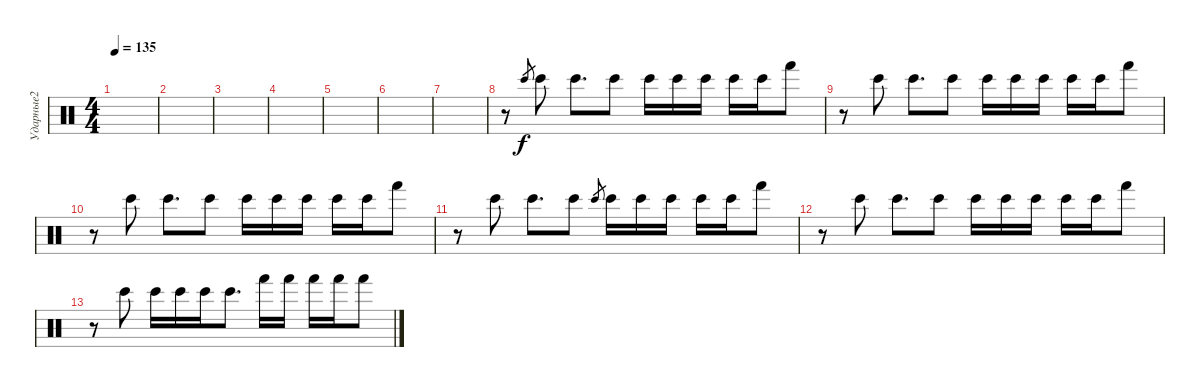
\track ("Ударные2" "Ударные2") {instrument percussion}
\staff {score}
\articulation defaults
\ts (4 4)
\tempo 135
\clef neutral
\ks c
|
|
|
|
|
|
|
r.8 "Bongo High (hit)".8{gr} "Bongo High (hit)".8 "Bongo High (hit)".8{d} "Bongo High (hit)".8 "Bongo High (hit)".16 "Bongo High (hit)".16 "Bongo High (hit)".16 "Bongo High (hit)".16 "Bongo High (hit)".16 "Hand (hit)".8 |
r.8 "Bongo High (hit)".8 "Bongo High (hit)".8{d} "Bongo High (hit)".8 "Bongo High (hit)".16 "Bongo High (hit)".16 "Bongo High (hit)".16 "Bongo High (hit)".16 "Bongo High (hit)".16 "Hand (hit)".8 |
r.8 "Bongo High (hit)".8 "Bongo High (hit)".8{d} "Bongo High (hit)".8 "Bongo High (hit)".16 "Bongo High (hit)".16 "Bongo High (hit)".16 "Bongo High (hit)".16 "Bongo High (hit)".16 "Hand (hit)".8 |
r.8 "Bongo High (hit)".8 "Bongo High (hit)".8{d} "Bongo High (hit)".8 "Bongo High (hit)".8{gr} "Bongo High (hit)".16 "Bongo High (hit)".16 "Bongo High (hit)".16 "Bongo High (hit)".16 "Bongo High (hit)".16 "Hand (hit)".8 |
r.8 "Bongo High (hit)".8 "Bongo High (hit)".8{d} "Bongo High (hit)".8 "Bongo High (hit)".16 "Bongo High (hit)".16 "Bongo High (hit)".16 "Bongo High (hit)".16 "Bongo High (hit)".16 "Hand (hit)".8 |
r.8 "Bongo High (hit)".8 "Bongo High (hit)".16 "Bongo High (hit)".16 "Bongo High (hit)".16 "Bongo High (hit)".8{d} "Hand (hit)".16 "Hand (hit)".16 "Hand (hit)".16 "Hand (hit)".16 "Hand (hit)".8
